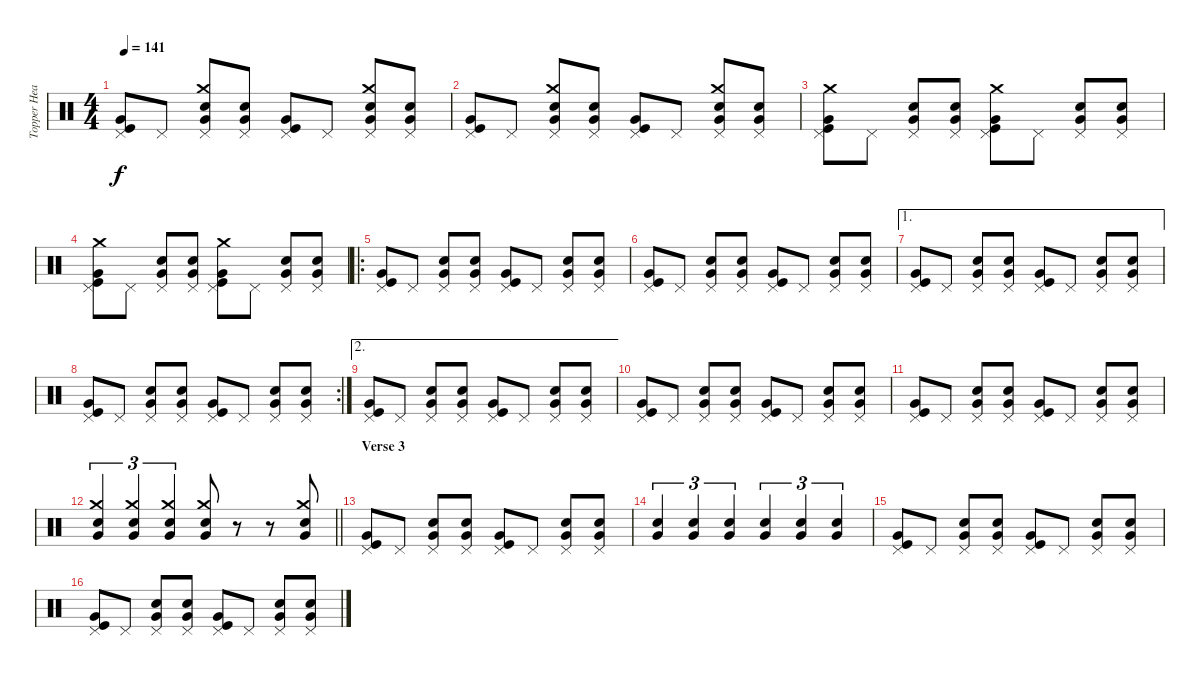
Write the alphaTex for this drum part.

\track ("Topper Headon - Drums" "Topper Hea") {instrument percussion}
\staff {score}
\articulation defaults
\ts (4 4)
\tempo 141
\clef neutral
\ks c
("Pedal Hi-Hat (hit)" "Very Low Tom (hit)" "Kick (hit)").8{dy f} "Pedal Hi-Hat (hit)".8 ("Pedal Hi-Hat (hit)" "Crash medium (hit)" "Very Low Tom (hit)" "Snare (hit) 2").8 ("Pedal Hi-Hat (hit)" "Very Low Tom (hit)" "Snare (hit) 2").8 ("Pedal Hi-Hat (hit)" "Very Low Tom (hit)" "Kick (hit)").8 "Pedal Hi-Hat (hit)".8 ("Pedal Hi-Hat (hit)" "Crash medium (hit)" "Very Low Tom (hit)" "Snare (hit) 2").8 ("Pedal Hi-Hat (hit)" "Very Low Tom (hit)" "Snare (hit) 2").8 |
("Pedal Hi-Hat (hit)" "Very Low Tom (hit)" "Kick (hit)").8 "Pedal Hi-Hat (hit)".8 ("Pedal Hi-Hat (hit)" "Crash medium (hit)" "Very Low Tom (hit)" "Snare (hit) 2").8 ("Pedal Hi-Hat (hit)" "Very Low Tom (hit)" "Snare (hit) 2").8 ("Pedal Hi-Hat (hit)" "Very Low Tom (hit)" "Kick (hit)").8 "Pedal Hi-Hat (hit)".8 ("Pedal Hi-Hat (hit)" "Crash medium (hit)" "Very Low Tom (hit)" "Snare (hit) 2").8 ("Pedal Hi-Hat (hit)" "Very Low Tom (hit)" "Snare (hit) 2").8 |
("Pedal Hi-Hat (hit)" "Crash medium (hit)" "Very Low Tom (hit)" "Kick (hit)").8 "Pedal Hi-Hat (hit)".8 ("Pedal Hi-Hat (hit)" "Very Low Tom (hit)" "Snare (hit) 2").8 ("Pedal Hi-Hat (hit)" "Very Low Tom (hit)" "Snare (hit) 2").8 ("Pedal Hi-Hat (hit)" "Crash medium (hit)" "Very Low Tom (hit)" "Kick (hit)").8 "Pedal Hi-Hat (hit)".8 ("Pedal Hi-Hat (hit)" "Very Low Tom (hit)" "Snare (hit) 2").8 ("Pedal Hi-Hat (hit)" "Very Low Tom (hit)" "Snare (hit) 2").8 |
("Pedal Hi-Hat (hit)" "Crash medium (hit)" "Very Low Tom (hit)" "Kick (hit)").8 "Pedal Hi-Hat (hit)".8 ("Pedal Hi-Hat (hit)" "Very Low Tom (hit)" "Snare (hit) 2").8 ("Pedal Hi-Hat (hit)" "Very Low Tom (hit)" "Snare (hit) 2").8 ("Pedal Hi-Hat (hit)" "Crash medium (hit)" "Very Low Tom (hit)" "Kick (hit)").8 "Pedal Hi-Hat (hit)".8 ("Pedal Hi-Hat (hit)" "Very Low Tom (hit)" "Snare (hit) 2").8 ("Pedal Hi-Hat (hit)" "Very Low Tom (hit)" "Snare (hit) 2").8 |
\ro
("Pedal Hi-Hat (hit)" "Very Low Tom (hit)" "Kick (hit)").8 "Pedal Hi-Hat (hit)".8 ("Pedal Hi-Hat (hit)" "Very Low Tom (hit)" "Snare (hit) 2").8 ("Pedal Hi-Hat (hit)" "Very Low Tom (hit)" "Snare (hit) 2").8 ("Pedal Hi-Hat (hit)" "Very Low Tom (hit)" "Kick (hit)").8 "Pedal Hi-Hat (hit)".8 ("Pedal Hi-Hat (hit)" "Very Low Tom (hit)" "Snare (hit) 2").8 ("Pedal Hi-Hat (hit)" "Very Low Tom (hit)" "Snare (hit) 2").8 |
("Pedal Hi-Hat (hit)" "Very Low Tom (hit)" "Kick (hit)").8 "Pedal Hi-Hat (hit)".8 ("Pedal Hi-Hat (hit)" "Very Low Tom (hit)" "Snare (hit) 2").8 ("Pedal Hi-Hat (hit)" "Very Low Tom (hit)" "Snare (hit) 2").8 ("Pedal Hi-Hat (hit)" "Very Low Tom (hit)" "Kick (hit)").8 "Pedal Hi-Hat (hit)".8 ("Pedal Hi-Hat (hit)" "Very Low Tom (hit)" "Snare (hit) 2").8 ("Pedal Hi-Hat (hit)" "Very Low Tom (hit)" "Snare (hit) 2").8 |
\ae 1
("Pedal Hi-Hat (hit)" "Very Low Tom (hit)" "Kick (hit)").8 "Pedal Hi-Hat (hit)".8 ("Pedal Hi-Hat (hit)" "Very Low Tom (hit)" "Snare (hit) 2").8 ("Pedal Hi-Hat (hit)" "Very Low Tom (hit)" "Snare (hit) 2").8 ("Pedal Hi-Hat (hit)" "Very Low Tom (hit)" "Kick (hit)").8 "Pedal Hi-Hat (hit)".8 ("Pedal Hi-Hat (hit)" "Very Low Tom (hit)" "Snare (hit) 2").8 ("Pedal Hi-Hat (hit)" "Very Low Tom (hit)" "Snare (hit) 2").8 |
\rc 2
("Pedal Hi-Hat (hit)" "Very Low Tom (hit)" "Kick (hit)").8 "Pedal Hi-Hat (hit)".8 ("Pedal Hi-Hat (hit)" "Very Low Tom (hit)" "Snare (hit) 2").8 ("Pedal Hi-Hat (hit)" "Very Low Tom (hit)" "Snare (hit) 2").8 ("Pedal Hi-Hat (hit)" "Very Low Tom (hit)" "Kick (hit)").8 "Pedal Hi-Hat (hit)".8 ("Pedal Hi-Hat (hit)" "Very Low Tom (hit)" "Snare (hit) 2").8 ("Pedal Hi-Hat (hit)" "Very Low Tom (hit)" "Snare (hit) 2").8 |
\ae 2
("Pedal Hi-Hat (hit)" "Very Low Tom (hit)" "Kick (hit)").8 "Pedal Hi-Hat (hit)".8 ("Pedal Hi-Hat (hit)" "Very Low Tom (hit)" "Snare (hit) 2").8 ("Pedal Hi-Hat (hit)" "Very Low Tom (hit)" "Snare (hit) 2").8 ("Pedal Hi-Hat (hit)" "Very Low Tom (hit)" "Kick (hit)").8 "Pedal Hi-Hat (hit)".8 ("Pedal Hi-Hat (hit)" "Very Low Tom (hit)" "Snare (hit) 2").8 ("Pedal Hi-Hat (hit)" "Very Low Tom (hit)" "Snare (hit) 2").8 |
("Pedal Hi-Hat (hit)" "Very Low Tom (hit)" "Kick (hit)").8 "Pedal Hi-Hat (hit)".8 ("Pedal Hi-Hat (hit)" "Very Low Tom (hit)" "Snare (hit) 2").8 ("Pedal Hi-Hat (hit)" "Very Low Tom (hit)" "Snare (hit) 2").8 ("Pedal Hi-Hat (hit)" "Very Low Tom (hit)" "Kick (hit)").8 "Pedal Hi-Hat (hit)".8 ("Pedal Hi-Hat (hit)" "Very Low Tom (hit)" "Snare (hit) 2").8 ("Pedal Hi-Hat (hit)" "Very Low Tom (hit)" "Snare (hit) 2").8 |
("Pedal Hi-Hat (hit)" "Very Low Tom (hit)" "Kick (hit)").8 "Pedal Hi-Hat (hit)".8 ("Pedal Hi-Hat (hit)" "Very Low Tom (hit)" "Snare (hit) 2").8 ("Pedal Hi-Hat (hit)" "Very Low Tom (hit)" "Snare (hit) 2").8 ("Pedal Hi-Hat (hit)" "Very Low Tom (hit)" "Kick (hit)").8 "Pedal Hi-Hat (hit)".8 ("Pedal Hi-Hat (hit)" "Very Low Tom (hit)" "Snare (hit) 2").8 ("Pedal Hi-Hat (hit)" "Very Low Tom (hit)" "Snare (hit) 2").8 |
\barLineRight lightlight
("Crash medium (hit)" "Snare (hit) 2" "Very Low Tom (hit)").4{tu (3 2)} ("Crash medium (hit)" "Snare (hit) 2" "Very Low Tom (hit)").4{tu (3 2)} ("Crash medium (hit)" "Snare (hit) 2" "Very Low Tom (hit)").4{tu (3 2)} ("Crash medium (hit)" "Snare (hit) 2" "Very Low Tom (hit)").8 r.8 r.8 ("Crash medium (hit)" "Snare (hit) 2" "Very Low Tom (hit)").8 |
\section ("" "Verse 3")
("Pedal Hi-Hat (hit)" "Very Low Tom (hit)" "Kick (hit)").8 "Pedal Hi-Hat (hit)".8 ("Pedal Hi-Hat (hit)" "Very Low Tom (hit)" "Snare (hit) 2").8 ("Pedal Hi-Hat (hit)" "Very Low Tom (hit)" "Snare (hit) 2").8 ("Pedal Hi-Hat (hit)" "Very Low Tom (hit)" "Kick (hit)").8 "Pedal Hi-Hat (hit)".8 ("Pedal Hi-Hat (hit)" "Very Low Tom (hit)" "Snare (hit) 2").8 ("Pedal Hi-Hat (hit)" "Very Low Tom (hit)" "Snare (hit) 2").8 |
("Very Low Tom (hit)" "Snare (hit) 2").4{tu (3 2)} ("Very Low Tom (hit)" "Snare (hit) 2").4{tu (3 2)} ("Very Low Tom (hit)" "Snare (hit) 2").4{tu (3 2)} ("Very Low Tom (hit)" "Snare (hit) 2").4{tu (3 2)} ("Very Low Tom (hit)" "Snare (hit) 2").4{tu (3 2)} ("Very Low Tom (hit)" "Snare (hit) 2").4{tu (3 2)} |
("Pedal Hi-Hat (hit)" "Very Low Tom (hit)" "Kick (hit)").8 "Pedal Hi-Hat (hit)".8 ("Pedal Hi-Hat (hit)" "Very Low Tom (hit)" "Snare (hit) 2").8 ("Pedal Hi-Hat (hit)" "Very Low Tom (hit)" "Snare (hit) 2").8 ("Pedal Hi-Hat (hit)" "Very Low Tom (hit)" "Kick (hit)").8 "Pedal Hi-Hat (hit)".8 ("Pedal Hi-Hat (hit)" "Very Low Tom (hit)" "Snare (hit) 2").8 ("Pedal Hi-Hat (hit)" "Very Low Tom (hit)" "Snare (hit) 2").8 |
("Pedal Hi-Hat (hit)" "Very Low Tom (hit)" "Kick (hit)").8 "Pedal Hi-Hat (hit)".8 ("Pedal Hi-Hat (hit)" "Very Low Tom (hit)" "Snare (hit) 2").8 ("Pedal Hi-Hat (hit)" "Very Low Tom (hit)" "Snare (hit) 2").8 ("Pedal Hi-Hat (hit)" "Very Low Tom (hit)" "Kick (hit)").8 "Pedal Hi-Hat (hit)".8 ("Pedal Hi-Hat (hit)" "Very Low Tom (hit)" "Snare (hit) 2").8 ("Pedal Hi-Hat (hit)" "Very Low Tom (hit)" "Snare (hit) 2").8
